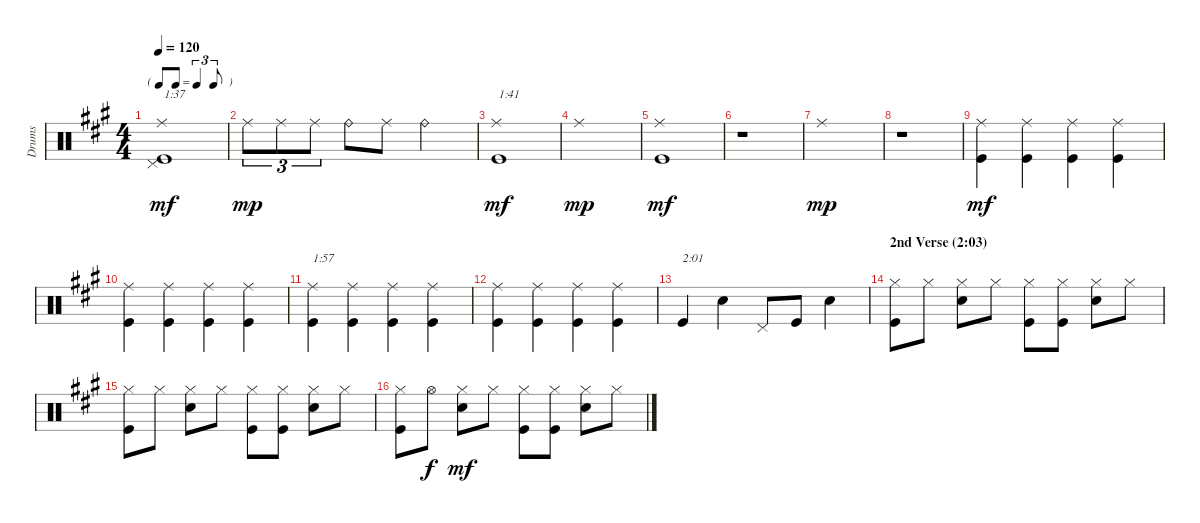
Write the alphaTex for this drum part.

\track ("Drums" "Drums") {instrument percussion}
\staff {score}
\articulation defaults
\ts (4 4)
\tf triplet8th
\tempo 120
\clef neutral
\ks a
("Ride (middle)" "Pedal Hi-Hat (hit)" "Kick (hit)").1{txt "1:37" dy mf} |
"Ride (middle)".8{tu (3 2) dy mp} "Ride (middle)".8{tu (3 2)} "Ride (middle)".8{tu (3 2)} "Ride (bell)".8 "Ride (middle)".8 "Ride (bell)".2 |
("Ride (middle)" "Kick (hit)").1{txt "1:41" dy mf} |
"Ride (middle)".1{dy mp} |
("Ride (middle)" "Kick (hit)").1{dy mf} |
r.1 |
"Ride (middle)".1{dy mp} |
r.1 |
("Ride (middle)" "Kick (hit)").4{dy mf} ("Ride (middle)" "Kick (hit)").4 ("Ride (middle)" "Kick (hit)").4 ("Ride (middle)" "Kick (hit)").4 |
("Ride (middle)" "Kick (hit)").4 ("Ride (middle)" "Kick (hit)").4 ("Ride (middle)" "Kick (hit)").4 ("Ride (middle)" "Kick (hit)").4 |
("Ride (middle)" "Kick (hit)").4{txt "1:57"} ("Ride (middle)" "Kick (hit)").4 ("Ride (middle)" "Kick (hit)").4 ("Ride (middle)" "Kick (hit)").4 |
("Ride (middle)" "Kick (hit)").4 ("Ride (middle)" "Kick (hit)").4 ("Ride (middle)" "Kick (hit)").4 ("Ride (middle)" "Kick (hit)").4 |
"Kick (hit)".4{txt "2:01"} "Snare (hit) 2".4 "Pedal Hi-Hat (hit)".8 "Kick (hit)".8 "Snare (hit) 2".4 |
\section ("" "2nd Verse (2:03)")
("Hi-Hat (closed)" "Kick (hit)").8 "Hi-Hat (closed)".8 ("Hi-Hat (closed)" "Snare (hit) 2").8 "Hi-Hat (closed)".8 ("Hi-Hat (closed)" "Kick (hit)").8 ("Hi-Hat (closed)" "Kick (hit)").8 ("Hi-Hat (closed)" "Snare (hit) 2").8 "Hi-Hat (closed)".8 |
("Hi-Hat (closed)" "Kick (hit)").8 "Hi-Hat (closed)".8 ("Hi-Hat (closed)" "Snare (hit) 2").8 "Hi-Hat (closed)".8 ("Hi-Hat (closed)" "Kick (hit)").8 ("Hi-Hat (closed)" "Kick (hit)").8 ("Hi-Hat (closed)" "Snare (hit) 2").8 "Hi-Hat (closed)".8 |
("Hi-Hat (closed)" "Kick (hit)").8 "Hi-Hat (open)".8{dy f} ("Hi-Hat (closed)" "Snare (hit) 2").8{dy mf} "Hi-Hat (closed)".8 ("Hi-Hat (closed)" "Kick (hit)").8 ("Hi-Hat (closed)" "Kick (hit)").8 ("Hi-Hat (closed)" "Snare (hit) 2").8 "Hi-Hat (closed)".8
